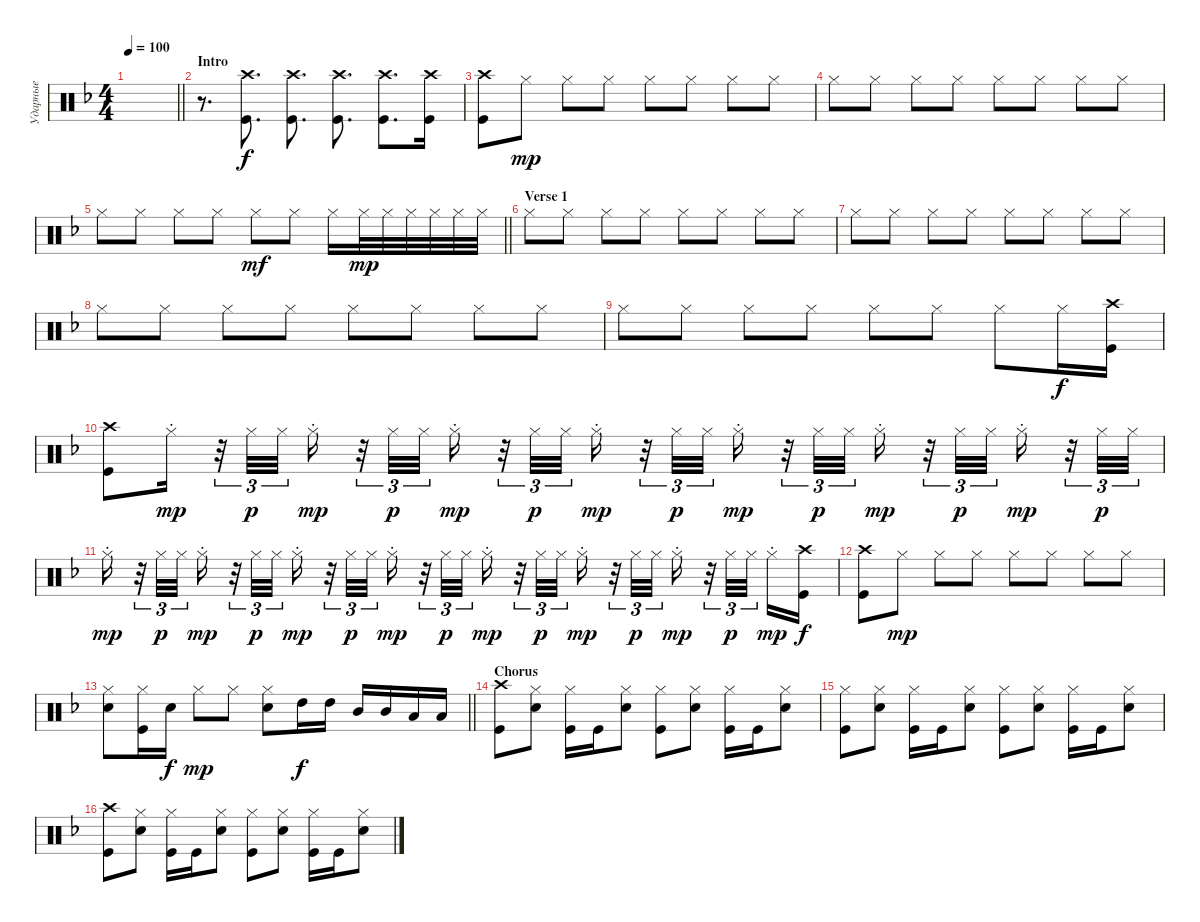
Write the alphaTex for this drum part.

\track ("Ударные" "Ударные") {instrument percussion}
\staff {score}
\articulation defaults
\ts (4 4)
\tempo 100
\clef neutral
\barLineRight lightlight
\ks dminor
|
\section ("" "Intro")
r.8{d} ("Kick (hit)" "Crash high (hit)").8{d} ("Kick (hit)" "Crash high (hit)").8{d} ("Kick (hit)" "Crash high (hit)").8{d} ("Kick (hit)" "Crash high (hit)").8{d} ("Kick (hit)" "Crash high (hit)").16 |
("Kick (hit)" "Crash high (hit)").8 "Hi-Hat (closed)".8{dy mp} "Hi-Hat (closed)".8 "Hi-Hat (closed)".8 "Hi-Hat (closed)".8 "Hi-Hat (closed)".8 "Hi-Hat (closed)".8 "Hi-Hat (closed)".8 |
"Hi-Hat (closed)".8 "Hi-Hat (closed)".8 "Hi-Hat (closed)".8 "Hi-Hat (closed)".8 "Hi-Hat (closed)".8 "Hi-Hat (closed)".8 "Hi-Hat (closed)".8 "Hi-Hat (closed)".8 |
\barLineRight lightlight "Hi-Hat (closed)".8 "Hi-Hat (closed)".8 "Hi-Hat (closed)".8 "Hi-Hat (closed)".8 "Hi-Hat (closed)".8{dy mf} "Hi-Hat (closed)".8 "Hi-Hat (closed)".16 "Hi-Hat (closed)".32{dy mp} "Hi-Hat (closed)".32 "Hi-Hat (closed)".32 "Hi-Hat (closed)".32 "Hi-Hat (closed)".32 "Hi-Hat (closed)".32
|
\section ("" "Verse 1")
"Hi-Hat (closed)".8 "Hi-Hat (closed)".8 "Hi-Hat (closed)".8 "Hi-Hat (closed)".8 "Hi-Hat (closed)".8 "Hi-Hat (closed)".8 "Hi-Hat (closed)".8 "Hi-Hat (closed)".8 |
"Hi-Hat (closed)".8 "Hi-Hat (closed)".8 "Hi-Hat (closed)".8 "Hi-Hat (closed)".8 "Hi-Hat (closed)".8 "Hi-Hat (closed)".8 "Hi-Hat (closed)".8 "Hi-Hat (closed)".8 |
"Hi-Hat (closed)".8 "Hi-Hat (closed)".8 "Hi-Hat (closed)".8 "Hi-Hat (closed)".8 "Hi-Hat (closed)".8 "Hi-Hat (closed)".8 "Hi-Hat (closed)".8 "Hi-Hat (closed)".8 |
"Hi-Hat (closed)".8 "Hi-Hat (closed)".8 "Hi-Hat (closed)".8 "Hi-Hat (closed)".8 "Hi-Hat (closed)".8 "Hi-Hat (closed)".8 "Hi-Hat (closed)".8 "Hi-Hat (closed)".16{dy f} ("Crash high (hit)" "Kick (hit)").16 |
("Crash high (hit)" "Kick (hit)").8 "Hi-Hat (closed)"{st}.16{dy mp} r.32{tu (3 2)} "Hi-Hat (closed)".32{tu (3 2) dy p} "Hi-Hat (closed)".32{tu (3 2)} "Hi-Hat (closed)"{st}.16{dy mp} r.32{tu (3 2)} "Hi-Hat (closed)".32{tu (3 2) dy p} "Hi-Hat (closed)".32{tu (3 2) beam splitsecondary} "Hi-Hat (closed)"{st}.16{dy mp} r.32{tu (3 2)} "Hi-Hat (closed)".32{tu (3 2) dy p} "Hi-Hat (closed)".32{tu (3 2)} "Hi-Hat (closed)"{st}.16{dy mp} r.32{tu (3 2)} "Hi-Hat (closed)".32{tu (3 2) dy p} "Hi-Hat (closed)".32{tu (3 2) beam splitsecondary} "Hi-Hat (closed)"{st}.16{dy mp} r.32{tu (3 2)} "Hi-Hat (closed)".32{tu (3 2) dy p} "Hi-Hat (closed)".32{tu (3 2)} "Hi-Hat (closed)"{st}.16{dy mp} r.32{tu (3 2)} "Hi-Hat (closed)".32{tu (3 2) dy p} "Hi-Hat (closed)".32{tu (3 2) beam splitsecondary} "Hi-Hat (closed)"{st}.16{dy mp} r.32{tu (3 2)} "Hi-Hat (closed)".32{tu (3 2) dy p} "Hi-Hat (closed)".32{tu (3 2)} |
"Hi-Hat (closed)"{st}.16{dy mp} r.32{tu (3 2)} "Hi-Hat (closed)".32{tu (3 2) dy p} "Hi-Hat (closed)".32{tu (3 2) beam splitsecondary} "Hi-Hat (closed)"{st}.16{dy mp} r.32{tu (3 2)} "Hi-Hat (closed)".32{tu (3 2) dy p} "Hi-Hat (closed)".32{tu (3 2)} "Hi-Hat (closed)"{st}.16{dy mp} r.32{tu (3 2)} "Hi-Hat (closed)".32{tu (3 2) dy p} "Hi-Hat (closed)".32{tu (3 2) beam splitsecondary} "Hi-Hat (closed)"{st}.16{dy mp} r.32{tu (3 2)} "Hi-Hat (closed)".32{tu (3 2) dy p} "Hi-Hat (closed)".32{tu (3 2)} "Hi-Hat (closed)"{st}.16{dy mp} r.32{tu (3 2)} "Hi-Hat (closed)".32{tu (3 2) dy p} "Hi-Hat (closed)".32{tu (3 2) beam splitsecondary} "Hi-Hat (closed)"{st}.16{dy mp} r.32{tu (3 2)} "Hi-Hat (closed)".32{tu (3 2) dy p} "Hi-Hat (closed)".32{tu (3 2)} "Hi-Hat (closed)"{st}.16{dy mp} r.32{tu (3 2)} "Hi-Hat (closed)".32{tu (3 2) dy p} "Hi-Hat (closed)".32{tu (3 2) beam splitsecondary} "Hi-Hat (closed)"{st}.16{dy mp} ("Kick (hit)" "Crash high (hit)").16{dy f} |
("Crash high (hit)" "Kick (hit)").8 "Hi-Hat (closed)".8{dy mp} "Hi-Hat (closed)".8 "Hi-Hat (closed)".8 "Hi-Hat (closed)".8 "Hi-Hat (closed)".8 "Hi-Hat (closed)".8 "Hi-Hat (closed)".8 |
\barLineRight lightlight
("Hi-Hat (closed)" "Snare (hit) 2").8 ("Hi-Hat (closed)" "Kick (hit)").16 "Snare (hit) 2".16{dy f} "Hi-Hat (closed)".8{dy mp} "Hi-Hat (closed)".8 ("Hi-Hat (closed)" "Snare (hit) 2").8 "High Tom (hit)".16{dy f} "High Tom (hit)".16 "Mid Tom (hit)".16 "Mid Tom (hit)".16 "Low Tom (hit)".16 "Low Tom (hit)".16 |
\section ("" "Chorus")
("Kick (hit)" "Crash high (hit)").8 ("Snare (hit) 2" "Hi-Hat (closed)").8 ("Kick (hit)" "Hi-Hat (closed)").16 "Kick (hit)".16 ("Snare (hit) 2" "Hi-Hat (closed)").8 ("Kick (hit)" "Hi-Hat (closed)").8 ("Snare (hit) 2" "Hi-Hat (closed)").8 ("Kick (hit)" "Hi-Hat (closed)").16 "Kick (hit)".16 ("Snare (hit) 2" "Hi-Hat (closed)").8 |
("Kick (hit)" "Hi-Hat (closed)").8 ("Snare (hit) 2" "Hi-Hat (closed)").8 ("Kick (hit)" "Hi-Hat (closed)").16 "Kick (hit)".16 ("Snare (hit) 2" "Hi-Hat (closed)").8 ("Kick (hit)" "Hi-Hat (closed)").8 ("Snare (hit) 2" "Hi-Hat (closed)").8 ("Kick (hit)" "Hi-Hat (closed)").16 "Kick (hit)".16 ("Snare (hit) 2" "Hi-Hat (closed)").8 |
("Kick (hit)" "Crash high (hit)").8 ("Snare (hit) 2" "Hi-Hat (closed)").8 ("Kick (hit)" "Hi-Hat (closed)").16 "Kick (hit)".16 ("Snare (hit) 2" "Hi-Hat (closed)").8 ("Kick (hit)" "Hi-Hat (closed)").8 ("Snare (hit) 2" "Hi-Hat (closed)").8 ("Kick (hit)" "Hi-Hat (closed)").16 "Kick (hit)".16 ("Snare (hit) 2" "Hi-Hat (closed)").8
